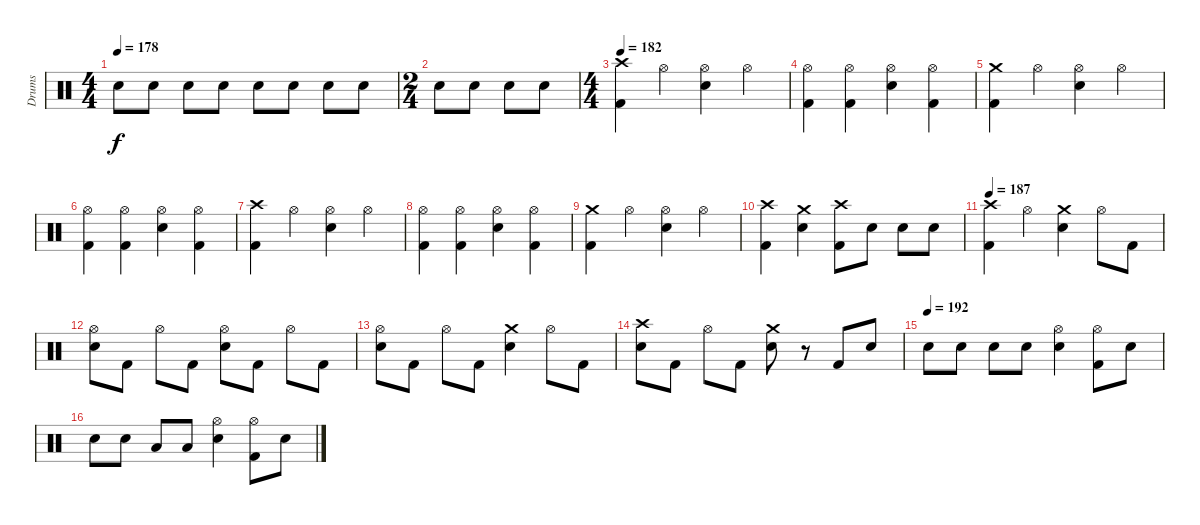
\track ("Drums" "Drums") {instrument percussion}
\staff {score}
\articulation defaults
\ts (4 4)
\tempo 178
\clef neutral
\ks c "Snare (hit) 2".8{dy f} "Snare (hit) 2".8 "Snare (hit) 2".8 "Snare (hit) 2".8 "Snare (hit) 2".8 "Snare (hit) 2".8 "Snare (hit) 2".8 "Snare (hit) 2".8
|
\ts (2 4)
"Snare (hit) 2".8 "Snare (hit) 2".8 "Snare (hit) 2".8 "Snare (hit) 2".8 |
\ts (4 4)
\tempo 182
("Crash high (hit)" "Kick (hit) 2").4 "Hi-Hat (open)".4 ("Hi-Hat (open)" "Snare (hit) 2").4 "Hi-Hat (open)".4 |
("Hi-Hat (open)" "Kick (hit) 2").4 ("Hi-Hat (open)" "Kick (hit) 2").4 ("Hi-Hat (open)" "Snare (hit) 2").4 ("Hi-Hat (open)" "Kick (hit) 2").4 |
("Crash medium (hit)" "Kick (hit) 2").4 "Hi-Hat (open)".4 ("Hi-Hat (open)" "Snare (hit) 2").4 "Hi-Hat (open)".4 |
("Hi-Hat (open)" "Kick (hit) 2").4 ("Hi-Hat (open)" "Kick (hit) 2").4 ("Hi-Hat (open)" "Snare (hit) 2").4 ("Hi-Hat (open)" "Kick (hit) 2").4 |
("Crash high (hit)" "Kick (hit) 2").4 "Hi-Hat (open)".4 ("Hi-Hat (open)" "Snare (hit) 2").4 "Hi-Hat (open)".4 |
("Hi-Hat (open)" "Kick (hit) 2").4 ("Hi-Hat (open)" "Kick (hit) 2").4 ("Hi-Hat (open)" "Snare (hit) 2").4 ("Hi-Hat (open)" "Kick (hit) 2").4 |
("Crash medium (hit)" "Kick (hit) 2").4 "Hi-Hat (open)".4 ("Hi-Hat (open)" "Snare (hit) 2").4 "Hi-Hat (open)".4 |
("Crash high (hit)" "Kick (hit) 2").4 ("Crash medium (hit)" "Snare (hit) 2").4 ("Crash high (hit)" "Kick (hit) 2").8 "Snare (hit) 2".8 "Snare (hit) 2".8 "Snare (hit) 2".8 |
\tempo 187
("Crash high (hit)" "Kick (hit) 2").4 "Hi-Hat (open)".4 ("Crash medium (hit)" "Snare (hit) 2").4 "Hi-Hat (open)".8 "Kick (hit) 2".8 |
("Hi-Hat (open)" "Snare (hit) 2").8 "Kick (hit) 2".8 "Hi-Hat (open)".8 "Kick (hit) 2".8 ("Hi-Hat (open)" "Snare (hit) 2").8 "Kick (hit) 2".8 "Hi-Hat (open)".8 "Kick (hit) 2".8 |
("Hi-Hat (open)" "Snare (hit) 2").8 "Kick (hit) 2".8 "Hi-Hat (open)".8 "Kick (hit) 2".8 ("Crash medium (hit)" "Snare (hit) 2").4 "Hi-Hat (open)".8 "Kick (hit) 2".8 |
("Crash high (hit)" "Snare (hit) 2").8 "Kick (hit) 2".8 "Hi-Hat (open)".8 "Kick (hit) 2".8 ("Crash medium (hit)" "Snare (hit) 2").8 r.8 "Kick (hit) 2".8 "Snare (hit) 2".8 |
\tempo (192)
"Snare (hit) 2".8 "Snare (hit) 2".8 "Snare (hit) 2".8 "Snare (hit) 2".8 ("Hi-Hat (open)" "Snare (hit) 2").4 ("Hi-Hat (open)" "Kick (hit) 2").8 "Snare (hit) 2".8 |
"Snare (hit) 2".8 "Snare (hit) 2".8 "Low Tom (hit)".8 "Low Tom (hit)".8 ("Hi-Hat (open)" "Snare (hit) 2").4 ("Hi-Hat (open)" "Kick (hit) 2").8 "Snare (hit) 2".8
